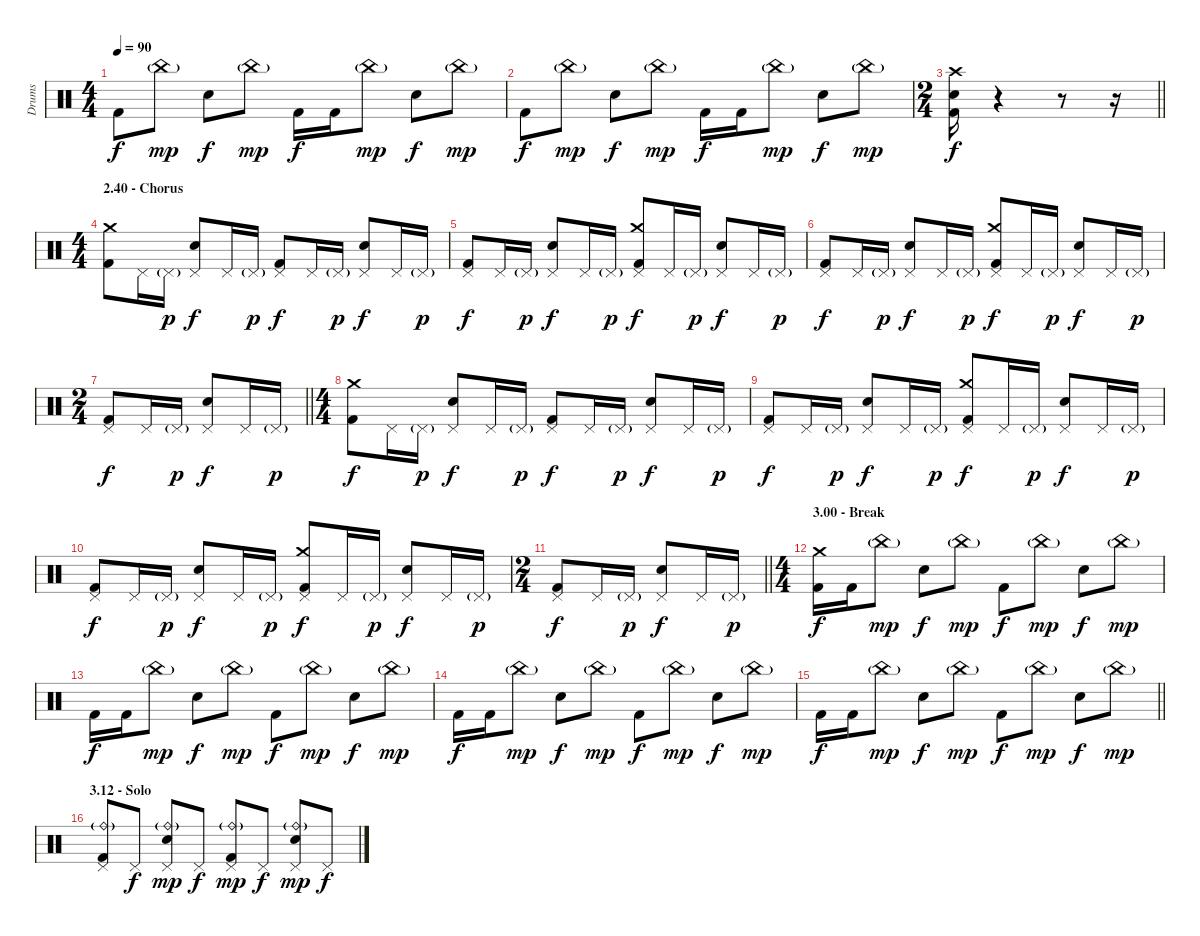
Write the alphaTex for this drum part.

\track ("Drums" "Drums") {instrument percussion}
\staff {score}
\articulation defaults
\ts (4 4)
\tempo 90
\clef neutral
\ks c "Kick (hit) 2".8{dy f} "China (hit)"{g}.8{dy mp} "Electric Snare (hit)".8{dy f} "China (hit)"{g}.8{dy mp} "Kick (hit) 2".16{dy f} "Kick (hit) 2".16 "China (hit)"{g}.8{dy mp} "Electric Snare (hit)".8{dy f} "China (hit)"{g}.8{dy mp}
|
"Kick (hit) 2".8{dy f} "China (hit)"{g}.8{dy mp} "Electric Snare (hit)".8{dy f} "China (hit)"{g}.8{dy mp} "Kick (hit) 2".16{dy f} "Kick (hit) 2".16 "China (hit)"{g}.8{dy mp} "Electric Snare (hit)".8{dy f} "China (hit)"{g}.8{dy mp} |
\ts (2 4)
\barLineRight lightlight
("Crash high (hit)" "Electric Snare (hit)" "Kick (hit) 2").16{dy f} r.4 r.8 r.16 |
\ts (4 4)
\section ("" "2.40 - Chorus")
("Crash medium (hit)" "Kick (hit) 2").8 "Pedal Hi-Hat (hit)".16 "Pedal Hi-Hat (hit)"{g}.16{dy p} ("Pedal Hi-Hat (hit)" "Electric Snare (hit)").8{dy f} "Pedal Hi-Hat (hit)".16 "Pedal Hi-Hat (hit)"{g}.16{dy p} ("Pedal Hi-Hat (hit)" "Kick (hit) 2").8{dy f} "Pedal Hi-Hat (hit)".16 "Pedal Hi-Hat (hit)"{g}.16{dy p} ("Pedal Hi-Hat (hit)" "Electric Snare (hit)").8{dy f} "Pedal Hi-Hat (hit)".16 "Pedal Hi-Hat (hit)"{g}.16{dy p} |
("Pedal Hi-Hat (hit)" "Kick (hit) 2").8{dy f} "Pedal Hi-Hat (hit)".16 "Pedal Hi-Hat (hit)"{g}.16{dy p} ("Pedal Hi-Hat (hit)" "Electric Snare (hit)").8{dy f} "Pedal Hi-Hat (hit)".16 "Pedal Hi-Hat (hit)"{g}.16{dy p} ("Crash medium (hit)" "Pedal Hi-Hat (hit)" "Kick (hit) 2").8{dy f} "Pedal Hi-Hat (hit)".16 "Pedal Hi-Hat (hit)"{g}.16{dy p} ("Pedal Hi-Hat (hit)" "Electric Snare (hit)").8{dy f} "Pedal Hi-Hat (hit)".16 "Pedal Hi-Hat (hit)"{g}.16{dy p} |
("Pedal Hi-Hat (hit)" "Kick (hit) 2").8{dy f} "Pedal Hi-Hat (hit)".16 "Pedal Hi-Hat (hit)"{g}.16{dy p} ("Pedal Hi-Hat (hit)" "Electric Snare (hit)").8{dy f} "Pedal Hi-Hat (hit)".16 "Pedal Hi-Hat (hit)"{g}.16{dy p} ("Crash medium (hit)" "Pedal Hi-Hat (hit)" "Kick (hit) 2").8{dy f} "Pedal Hi-Hat (hit)".16 "Pedal Hi-Hat (hit)"{g}.16{dy p} ("Pedal Hi-Hat (hit)" "Electric Snare (hit)").8{dy f} "Pedal Hi-Hat (hit)".16 "Pedal Hi-Hat (hit)"{g}.16{dy p} |
\ts (2 4)
\barLineRight lightlight
("Pedal Hi-Hat (hit)" "Kick (hit) 2").8{dy f} "Pedal Hi-Hat (hit)".16 "Pedal Hi-Hat (hit)"{g}.16{dy p} ("Pedal Hi-Hat (hit)" "Electric Snare (hit)").8{dy f} "Pedal Hi-Hat (hit)".16 "Pedal Hi-Hat (hit)"{g}.16{dy p} |
\ts (4 4)
("Crash medium (hit)" "Kick (hit) 2").8{dy f} "Pedal Hi-Hat (hit)".16 "Pedal Hi-Hat (hit)"{g}.16{dy p} ("Pedal Hi-Hat (hit)" "Electric Snare (hit)").8{dy f} "Pedal Hi-Hat (hit)".16 "Pedal Hi-Hat (hit)"{g}.16{dy p} ("Pedal Hi-Hat (hit)" "Kick (hit) 2").8{dy f} "Pedal Hi-Hat (hit)".16 "Pedal Hi-Hat (hit)"{g}.16{dy p} ("Pedal Hi-Hat (hit)" "Electric Snare (hit)").8{dy f} "Pedal Hi-Hat (hit)".16 "Pedal Hi-Hat (hit)"{g}.16{dy p} |
("Pedal Hi-Hat (hit)" "Kick (hit) 2").8{dy f} "Pedal Hi-Hat (hit)".16 "Pedal Hi-Hat (hit)"{g}.16{dy p} ("Pedal Hi-Hat (hit)" "Electric Snare (hit)").8{dy f} "Pedal Hi-Hat (hit)".16 "Pedal Hi-Hat (hit)"{g}.16{dy p} ("Crash medium (hit)" "Pedal Hi-Hat (hit)" "Kick (hit) 2").8{dy f} "Pedal Hi-Hat (hit)".16 "Pedal Hi-Hat (hit)"{g}.16{dy p} ("Pedal Hi-Hat (hit)" "Electric Snare (hit)").8{dy f} "Pedal Hi-Hat (hit)".16 "Pedal Hi-Hat (hit)"{g}.16{dy p} |
("Pedal Hi-Hat (hit)" "Kick (hit) 2").8{dy f} "Pedal Hi-Hat (hit)".16 "Pedal Hi-Hat (hit)"{g}.16{dy p} ("Pedal Hi-Hat (hit)" "Electric Snare (hit)").8{dy f} "Pedal Hi-Hat (hit)".16 "Pedal Hi-Hat (hit)"{g}.16{dy p} ("Crash medium (hit)" "Pedal Hi-Hat (hit)" "Kick (hit) 2").8{dy f} "Pedal Hi-Hat (hit)".16 "Pedal Hi-Hat (hit)"{g}.16{dy p} ("Pedal Hi-Hat (hit)" "Electric Snare (hit)").8{dy f} "Pedal Hi-Hat (hit)".16 "Pedal Hi-Hat (hit)"{g}.16{dy p} |
\ts (2 4)
\barLineRight lightlight
("Pedal Hi-Hat (hit)" "Kick (hit) 2").8{dy f} "Pedal Hi-Hat (hit)".16 "Pedal Hi-Hat (hit)"{g}.16{dy p} ("Pedal Hi-Hat (hit)" "Electric Snare (hit)").8{dy f} "Pedal Hi-Hat (hit)".16 "Pedal Hi-Hat (hit)"{g}.16{dy p} |
\ts (4 4)
\section ("" "3.00 - Break")
("Crash medium (hit)" "Kick (hit) 2").16{dy f} "Kick (hit) 2".16 "China (hit)"{g}.8{dy mp} "Electric Snare (hit)".8{dy f} "China (hit)"{g}.8{dy mp} "Kick (hit) 2".8{dy f} "China (hit)"{g}.8{dy mp} "Electric Snare (hit)".8{dy f} "China (hit)"{g}.8{dy mp} |
"Kick (hit) 2".16{dy f} "Kick (hit) 2".16 "China (hit)"{g}.8{dy mp} "Electric Snare (hit)".8{dy f} "China (hit)"{g}.8{dy mp} "Kick (hit) 2".8{dy f} "China (hit)"{g}.8{dy mp} "Electric Snare (hit)".8{dy f} "China (hit)"{g}.8{dy mp} |
"Kick (hit) 2".16{dy f} "Kick (hit) 2".16 "China (hit)"{g}.8{dy mp} "Electric Snare (hit)".8{dy f} "China (hit)"{g}.8{dy mp} "Kick (hit) 2".8{dy f} "China (hit)"{g}.8{dy mp} "Electric Snare (hit)".8{dy f} "China (hit)"{g}.8{dy mp} |
\barLineRight lightlight "Kick (hit) 2".16{dy f} "Kick (hit) 2".16 "China (hit)"{g}.8{dy mp} "Electric Snare (hit)".8{dy f} "China (hit)"{g}.8{dy mp} "Kick (hit) 2".8{dy f} "China (hit)"{g}.8{dy mp} "Electric Snare (hit)".8{dy f} "China (hit)"{g}.8{dy mp}
|
\section ("" "3.12 - Solo")
("Ride (bell)"{g} "Pedal Hi-Hat (hit)" "Kick (hit) 2").8 "Pedal Hi-Hat (hit)".8{dy f} ("Ride (bell)"{g} "Pedal Hi-Hat (hit)" "Electric Snare (hit)").8{dy mp} "Pedal Hi-Hat (hit)".8{dy f} ("Ride (bell)"{g} "Pedal Hi-Hat (hit)" "Kick (hit) 2").8{dy mp} "Pedal Hi-Hat (hit)".8{dy f} ("Ride (bell)"{g} "Pedal Hi-Hat (hit)" "Electric Snare (hit)").8{dy mp} "Pedal Hi-Hat (hit)".8{dy f}
